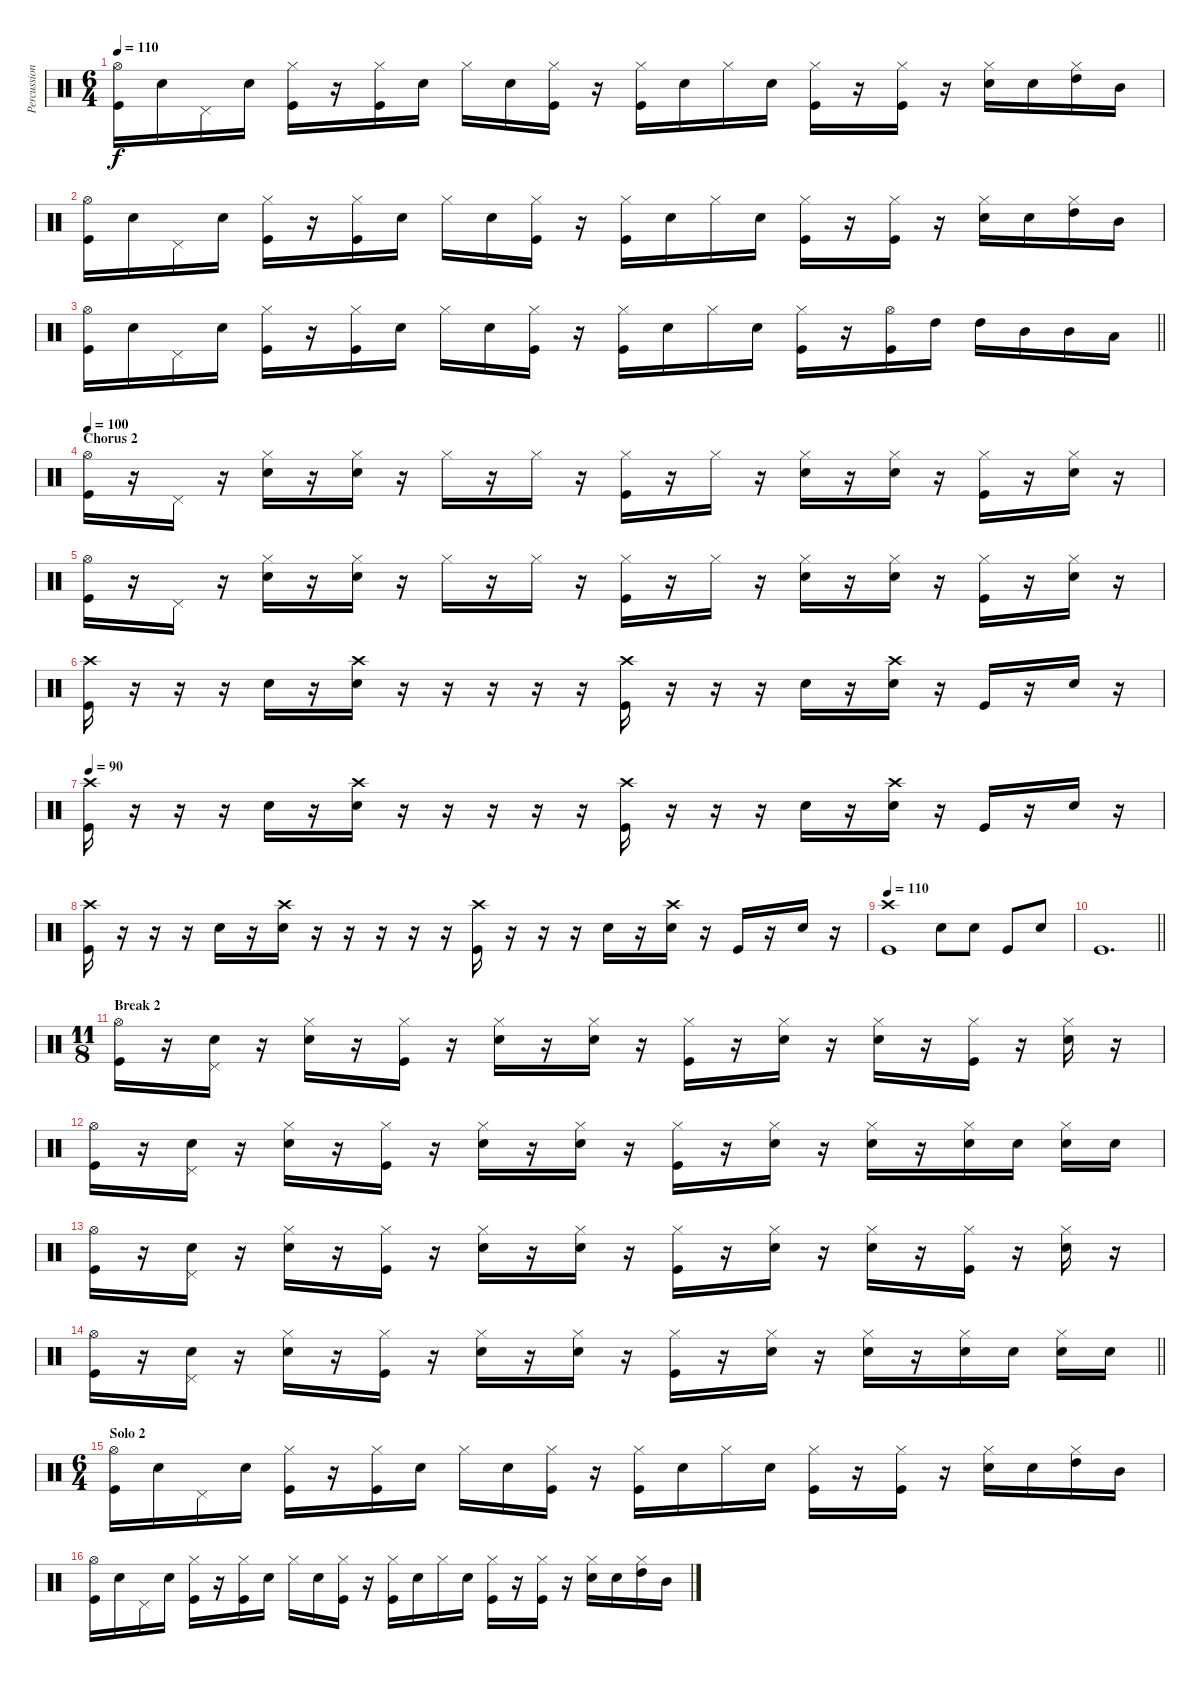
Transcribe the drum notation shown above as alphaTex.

\track ("Percussion 1" "Percussion") {instrument percussion}
\staff {score}
\articulation defaults
\ts (6 4)
\tempo 110
\clef neutral
\ks c
("Hi-Hat (open)" "Kick (hit)").16{dy f} "Snare (hit) 2".16 "Pedal Hi-Hat (hit)".16 "Snare (hit) 2".16 ("Hi-Hat (closed)" "Kick (hit)").16 r.16 ("Hi-Hat (closed)" "Kick (hit)").16 "Snare (hit) 2".16 "Hi-Hat (closed)".16 "Snare (hit) 2".16 ("Hi-Hat (closed)" "Kick (hit)").16 r.16 ("Hi-Hat (closed)" "Kick (hit)").16 "Snare (hit) 2".16 "Hi-Hat (closed)".16 "Snare (hit) 2".16 ("Hi-Hat (closed)" "Kick (hit)").16 r.16 ("Hi-Hat (closed)" "Kick (hit)").16 r.16 ("Hi-Hat (closed)" "Snare (hit) 2").16 "Snare (hit) 2".16 ("Hi-Hat (closed)" "High Tom (hit)").16 "Mid Tom (hit)".16 |
("Hi-Hat (open)" "Kick (hit)").16 "Snare (hit) 2".16 "Pedal Hi-Hat (hit)".16 "Snare (hit) 2".16 ("Hi-Hat (closed)" "Kick (hit)").16 r.16 ("Hi-Hat (closed)" "Kick (hit)").16 "Snare (hit) 2".16 "Hi-Hat (closed)".16 "Snare (hit) 2".16 ("Hi-Hat (closed)" "Kick (hit)").16 r.16 ("Hi-Hat (closed)" "Kick (hit)").16 "Snare (hit) 2".16 "Hi-Hat (closed)".16 "Snare (hit) 2".16 ("Hi-Hat (closed)" "Kick (hit)").16 r.16 ("Hi-Hat (closed)" "Kick (hit)").16 r.16 ("Hi-Hat (closed)" "Snare (hit) 2").16 "Snare (hit) 2".16 ("Hi-Hat (closed)" "High Tom (hit)").16 "Mid Tom (hit)".16 |
\barLineRight lightlight
("Hi-Hat (open)" "Kick (hit)").16 "Snare (hit) 2".16 "Pedal Hi-Hat (hit)".16 "Snare (hit) 2".16 ("Hi-Hat (closed)" "Kick (hit)").16 r.16 ("Hi-Hat (closed)" "Kick (hit)").16 "Snare (hit) 2".16 "Hi-Hat (closed)".16 "Snare (hit) 2".16 ("Hi-Hat (closed)" "Kick (hit)").16 r.16 ("Hi-Hat (closed)" "Kick (hit)").16 "Snare (hit) 2".16 "Hi-Hat (closed)".16 "Snare (hit) 2".16 ("Hi-Hat (closed)" "Kick (hit)").16 r.16 ("Hi-Hat (open)" "Kick (hit)").16 "High Tom (hit)".16 "High Tom (hit)".16 "Mid Tom (hit)".16 "Mid Tom (hit)".16 "Low Tom (hit)".16 |
\section ("" "Chorus 2")
\tempo 100
("Hi-Hat (open)" "Kick (hit)").16 r.16 "Pedal Hi-Hat (hit)".16 r.16 ("Hi-Hat (closed)" "Snare (hit) 2").16 r.16 ("Hi-Hat (closed)" "Snare (hit) 2").16 r.16 "Hi-Hat (closed)".16 r.16 "Hi-Hat (closed)".16 r.16 ("Hi-Hat (closed)" "Kick (hit)").16 r.16 "Hi-Hat (closed)".16 r.16 ("Hi-Hat (closed)" "Snare (hit) 2").16 r.16 ("Hi-Hat (closed)" "Snare (hit) 2").16 r.16 ("Hi-Hat (closed)" "Kick (hit)").16 r.16 ("Hi-Hat (closed)" "Snare (hit) 2").16 r.16 |
("Hi-Hat (open)" "Kick (hit)").16 r.16 "Pedal Hi-Hat (hit)".16 r.16 ("Hi-Hat (closed)" "Snare (hit) 2").16 r.16 ("Hi-Hat (closed)" "Snare (hit) 2").16 r.16 "Hi-Hat (closed)".16 r.16 "Hi-Hat (closed)".16 r.16 ("Hi-Hat (closed)" "Kick (hit)").16 r.16 "Hi-Hat (closed)".16 r.16 ("Hi-Hat (closed)" "Snare (hit) 2").16 r.16 ("Hi-Hat (closed)" "Snare (hit) 2").16 r.16 ("Hi-Hat (closed)" "Kick (hit)").16 r.16 ("Hi-Hat (closed)" "Snare (hit) 2").16 r.16 |
("Crash high (hit)" "Kick (hit)").16 r.16 r.16 r.16 "Snare (hit) 2".16 r.16 ("Crash high (hit)" "Snare (hit) 2").16 r.16 r.16 r.16 r.16 r.16 ("Crash high (hit)" "Kick (hit)").16 r.16 r.16 r.16 "Snare (hit) 2".16 r.16 ("Crash high (hit)" "Snare (hit) 2").16 r.16 "Kick (hit)".16 r.16 "Snare (hit) 2".16 r.16 |
\tempo 90
("Crash high (hit)" "Kick (hit)").16 r.16 r.16 r.16 "Snare (hit) 2".16 r.16 ("Crash high (hit)" "Snare (hit) 2").16 r.16 r.16 r.16 r.16 r.16 ("Crash high (hit)" "Kick (hit)").16 r.16 r.16 r.16 "Snare (hit) 2".16 r.16 ("Crash high (hit)" "Snare (hit) 2").16 r.16 "Kick (hit)".16 r.16 "Snare (hit) 2".16 r.16 |
("Crash high (hit)" "Kick (hit)").16 r.16 r.16 r.16 "Snare (hit) 2".16 r.16 ("Crash high (hit)" "Snare (hit) 2").16 r.16 r.16 r.16 r.16 r.16 ("Crash high (hit)" "Kick (hit)").16 r.16 r.16 r.16 "Snare (hit) 2".16 r.16 ("Crash high (hit)" "Snare (hit) 2").16 r.16 "Kick (hit)".16 r.16 "Snare (hit) 2".16 r.16 |
\tempo 110
("Crash high (hit)" "Kick (hit)").1 "Snare (hit) 2".8 "Snare (hit) 2".8 "Kick (hit)".8 "Snare (hit) 2".8 |
\barLineRight lightlight "Kick (hit)".1{d}
|
\ts (11 8)
\section ("" "Break 2")
("Hi-Hat (open)" "Kick (hit)").16 r.16 ("Pedal Hi-Hat (hit)" "Snare (hit) 2").16 r.16 ("Hi-Hat (closed)" "Snare (hit) 2").16 r.16 ("Hi-Hat (closed)" "Kick (hit)").16 r.16 ("Hi-Hat (closed)" "Snare (hit) 2").16 r.16 ("Hi-Hat (closed)" "Snare (hit) 2").16 r.16 ("Hi-Hat (closed)" "Kick (hit)").16 r.16 ("Hi-Hat (closed)" "Snare (hit) 2").16 r.16 ("Hi-Hat (closed)" "Snare (hit) 2").16 r.16 ("Hi-Hat (closed)" "Kick (hit)").16 r.16 ("Hi-Hat (closed)" "Snare (hit) 2").16 r.16 |
("Hi-Hat (open)" "Kick (hit)").16 r.16 ("Pedal Hi-Hat (hit)" "Snare (hit) 2").16 r.16 ("Hi-Hat (closed)" "Snare (hit) 2").16 r.16 ("Hi-Hat (closed)" "Kick (hit)").16 r.16 ("Hi-Hat (closed)" "Snare (hit) 2").16 r.16 ("Hi-Hat (closed)" "Snare (hit) 2").16 r.16 ("Hi-Hat (closed)" "Kick (hit)").16 r.16 ("Hi-Hat (closed)" "Snare (hit) 2").16 r.16 ("Hi-Hat (closed)" "Snare (hit) 2").16 r.16 ("Hi-Hat (closed)" "Snare (hit) 2").16 "Snare (hit) 2".16 ("Hi-Hat (closed)" "Snare (hit) 2").16 "Snare (hit) 2".16 |
("Hi-Hat (open)" "Kick (hit)").16 r.16 ("Pedal Hi-Hat (hit)" "Snare (hit) 2").16 r.16 ("Hi-Hat (closed)" "Snare (hit) 2").16 r.16 ("Hi-Hat (closed)" "Kick (hit)").16 r.16 ("Hi-Hat (closed)" "Snare (hit) 2").16 r.16 ("Hi-Hat (closed)" "Snare (hit) 2").16 r.16 ("Hi-Hat (closed)" "Kick (hit)").16 r.16 ("Hi-Hat (closed)" "Snare (hit) 2").16 r.16 ("Hi-Hat (closed)" "Snare (hit) 2").16 r.16 ("Hi-Hat (closed)" "Kick (hit)").16 r.16 ("Hi-Hat (closed)" "Snare (hit) 2").16 r.16 |
\barLineRight lightlight
("Hi-Hat (open)" "Kick (hit)").16 r.16 ("Pedal Hi-Hat (hit)" "Snare (hit) 2").16 r.16 ("Hi-Hat (closed)" "Snare (hit) 2").16 r.16 ("Hi-Hat (closed)" "Kick (hit)").16 r.16 ("Hi-Hat (closed)" "Snare (hit) 2").16 r.16 ("Hi-Hat (closed)" "Snare (hit) 2").16 r.16 ("Hi-Hat (closed)" "Kick (hit)").16 r.16 ("Hi-Hat (closed)" "Snare (hit) 2").16 r.16 ("Hi-Hat (closed)" "Snare (hit) 2").16 r.16 ("Hi-Hat (closed)" "Snare (hit) 2").16 "Snare (hit) 2".16 ("Hi-Hat (closed)" "Snare (hit) 2").16 "Snare (hit) 2".16 |
\ts (6 4)
\section ("" "Solo 2")
("Hi-Hat (open)" "Kick (hit)").16 "Snare (hit) 2".16 "Pedal Hi-Hat (hit)".16 "Snare (hit) 2".16 ("Hi-Hat (closed)" "Kick (hit)").16 r.16 ("Hi-Hat (closed)" "Kick (hit)").16 "Snare (hit) 2".16 "Hi-Hat (closed)".16 "Snare (hit) 2".16 ("Hi-Hat (closed)" "Kick (hit)").16 r.16 ("Hi-Hat (closed)" "Kick (hit)").16 "Snare (hit) 2".16 "Hi-Hat (closed)".16 "Snare (hit) 2".16 ("Hi-Hat (closed)" "Kick (hit)").16 r.16 ("Hi-Hat (closed)" "Kick (hit)").16 r.16 ("Hi-Hat (closed)" "Snare (hit) 2").16 "Snare (hit) 2".16 ("Hi-Hat (closed)" "High Tom (hit)").16 "Mid Tom (hit)".16 |
("Hi-Hat (open)" "Kick (hit)").16 "Snare (hit) 2".16 "Pedal Hi-Hat (hit)".16 "Snare (hit) 2".16 ("Hi-Hat (closed)" "Kick (hit)").16 r.16 ("Hi-Hat (closed)" "Kick (hit)").16 "Snare (hit) 2".16 "Hi-Hat (closed)".16 "Snare (hit) 2".16 ("Hi-Hat (closed)" "Kick (hit)").16 r.16 ("Hi-Hat (closed)" "Kick (hit)").16 "Snare (hit) 2".16 "Hi-Hat (closed)".16 "Snare (hit) 2".16 ("Hi-Hat (closed)" "Kick (hit)").16 r.16 ("Hi-Hat (closed)" "Kick (hit)").16 r.16 ("Hi-Hat (closed)" "Snare (hit) 2").16 "Snare (hit) 2".16 ("Hi-Hat (closed)" "High Tom (hit)").16 "Mid Tom (hit)".16
